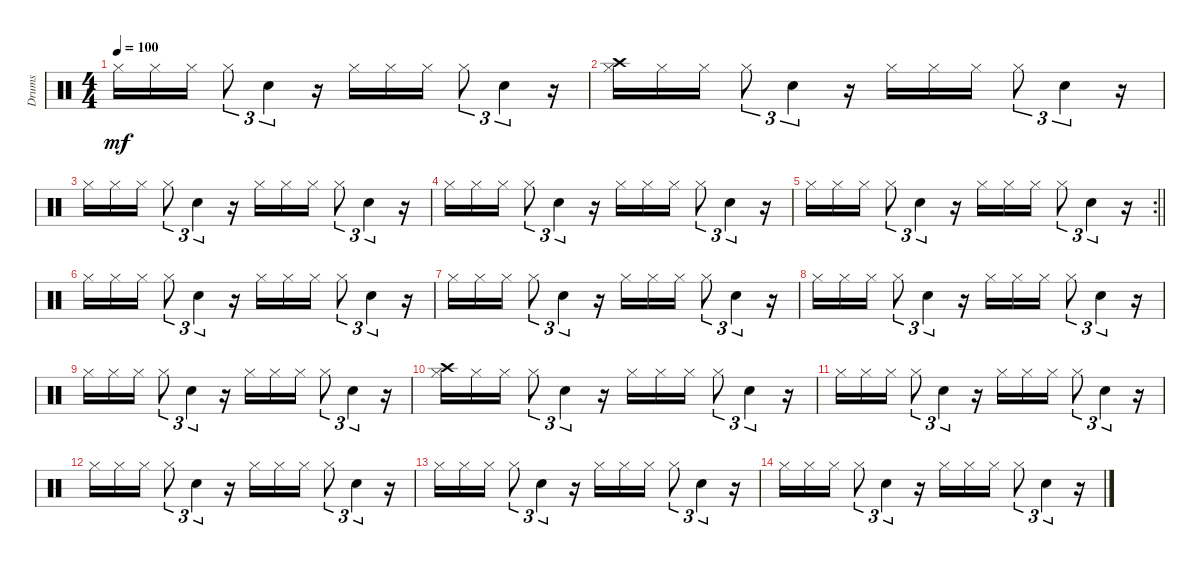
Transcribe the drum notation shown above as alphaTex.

\track ("Drums" "Drums") {instrument percussion}
\staff {score}
\articulation defaults
\ts (4 4)
\tempo 100
\clef neutral
\ks c "Hi-Hat (closed)".16{dy mf} "Hi-Hat (closed)".16 "Hi-Hat (closed)".16 "Hi-Hat (closed)".8{tu (3 2)} "Electric Snare (hit)".4{tu (3 2)}
r.16 "Hi-Hat (closed)".16 "Hi-Hat (closed)".16 "Hi-Hat (closed)".16 "Hi-Hat (closed)".8{tu (3 2)} "Electric Snare (hit)".4{tu (3 2)} r.16 |
("Crash high (hit)" "Hi-Hat (closed)").16 "Hi-Hat (closed)".16 "Hi-Hat (closed)".16 "Hi-Hat (closed)".8{tu (3 2)} "Electric Snare (hit)".4{tu (3 2)} r.16 "Hi-Hat (closed)".16 "Hi-Hat (closed)".16 "Hi-Hat (closed)".16 "Hi-Hat (closed)".8{tu (3 2)} "Electric Snare (hit)".4{tu (3 2)} r.16 |
"Hi-Hat (closed)".16 "Hi-Hat (closed)".16 "Hi-Hat (closed)".16 "Hi-Hat (closed)".8{tu (3 2)} "Electric Snare (hit)".4{tu (3 2)} r.16 "Hi-Hat (closed)".16 "Hi-Hat (closed)".16 "Hi-Hat (closed)".16 "Hi-Hat (closed)".8{tu (3 2)} "Electric Snare (hit)".4{tu (3 2)} r.16 |
"Hi-Hat (closed)".16 "Hi-Hat (closed)".16 "Hi-Hat (closed)".16 "Hi-Hat (closed)".8{tu (3 2)} "Electric Snare (hit)".4{tu (3 2)} r.16 "Hi-Hat (closed)".16 "Hi-Hat (closed)".16 "Hi-Hat (closed)".16 "Hi-Hat (closed)".8{tu (3 2)} "Electric Snare (hit)".4{tu (3 2)} r.16 |
\rc 2
\barLineRight lightlight "Hi-Hat (closed)".16 "Hi-Hat (closed)".16 "Hi-Hat (closed)".16 "Hi-Hat (closed)".8{tu (3 2)} "Electric Snare (hit)".4{tu (3 2)}
r.16 "Hi-Hat (closed)".16 "Hi-Hat (closed)".16 "Hi-Hat (closed)".16 "Hi-Hat (closed)".8{tu (3 2)} "Electric Snare (hit)".4{tu (3 2)} r.16 |
"Hi-Hat (closed)".16 "Hi-Hat (closed)".16 "Hi-Hat (closed)".16 "Hi-Hat (closed)".8{tu (3 2)} "Electric Snare (hit)".4{tu (3 2)} r.16 "Hi-Hat (closed)".16 "Hi-Hat (closed)".16 "Hi-Hat (closed)".16 "Hi-Hat (closed)".8{tu (3 2)} "Electric Snare (hit)".4{tu (3 2)} r.16 |
"Hi-Hat (closed)".16 "Hi-Hat (closed)".16 "Hi-Hat (closed)".16 "Hi-Hat (closed)".8{tu (3 2)} "Electric Snare (hit)".4{tu (3 2)} r.16 "Hi-Hat (closed)".16 "Hi-Hat (closed)".16 "Hi-Hat (closed)".16 "Hi-Hat (closed)".8{tu (3 2)} "Electric Snare (hit)".4{tu (3 2)} r.16 |
"Hi-Hat (closed)".16 "Hi-Hat (closed)".16 "Hi-Hat (closed)".16 "Hi-Hat (closed)".8{tu (3 2)} "Electric Snare (hit)".4{tu (3 2)} r.16 "Hi-Hat (closed)".16 "Hi-Hat (closed)".16 "Hi-Hat (closed)".16 "Hi-Hat (closed)".8{tu (3 2)} "Electric Snare (hit)".4{tu (3 2)} r.16 |
"Hi-Hat (closed)".16 "Hi-Hat (closed)".16 "Hi-Hat (closed)".16 "Hi-Hat (closed)".8{tu (3 2)} "Electric Snare (hit)".4{tu (3 2)} r.16 "Hi-Hat (closed)".16 "Hi-Hat (closed)".16 "Hi-Hat (closed)".16 "Hi-Hat (closed)".8{tu (3 2)} "Electric Snare (hit)".4{tu (3 2)} r.16 |
("Crash high (hit)" "Hi-Hat (closed)").16 "Hi-Hat (closed)".16 "Hi-Hat (closed)".16 "Hi-Hat (closed)".8{tu (3 2)} "Electric Snare (hit)".4{tu (3 2)} r.16 "Hi-Hat (closed)".16 "Hi-Hat (closed)".16 "Hi-Hat (closed)".16 "Hi-Hat (closed)".8{tu (3 2)} "Electric Snare (hit)".4{tu (3 2)} r.16 |
"Hi-Hat (closed)".16 "Hi-Hat (closed)".16 "Hi-Hat (closed)".16 "Hi-Hat (closed)".8{tu (3 2)} "Electric Snare (hit)".4{tu (3 2)} r.16 "Hi-Hat (closed)".16 "Hi-Hat (closed)".16 "Hi-Hat (closed)".16 "Hi-Hat (closed)".8{tu (3 2)} "Electric Snare (hit)".4{tu (3 2)} r.16 |
"Hi-Hat (closed)".16 "Hi-Hat (closed)".16 "Hi-Hat (closed)".16 "Hi-Hat (closed)".8{tu (3 2)} "Electric Snare (hit)".4{tu (3 2)} r.16 "Hi-Hat (closed)".16 "Hi-Hat (closed)".16 "Hi-Hat (closed)".16 "Hi-Hat (closed)".8{tu (3 2)} "Electric Snare (hit)".4{tu (3 2)} r.16 |
"Hi-Hat (closed)".16 "Hi-Hat (closed)".16 "Hi-Hat (closed)".16 "Hi-Hat (closed)".8{tu (3 2)} "Electric Snare (hit)".4{tu (3 2)} r.16 "Hi-Hat (closed)".16 "Hi-Hat (closed)".16 "Hi-Hat (closed)".16 "Hi-Hat (closed)".8{tu (3 2)} "Electric Snare (hit)".4{tu (3 2)} r.16 |
"Hi-Hat (closed)".16 "Hi-Hat (closed)".16 "Hi-Hat (closed)".16 "Hi-Hat (closed)".8{tu (3 2)} "Electric Snare (hit)".4{tu (3 2)} r.16 "Hi-Hat (closed)".16 "Hi-Hat (closed)".16 "Hi-Hat (closed)".16 "Hi-Hat (closed)".8{tu (3 2)} "Electric Snare (hit)".4{tu (3 2)} r.16
